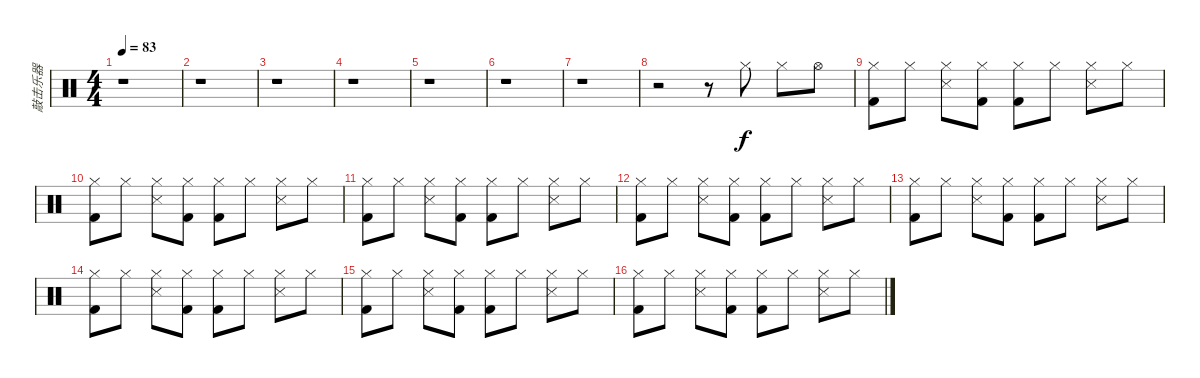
\track ("敲击乐器" "敲击乐器") {instrument percussion}
\staff {score}
\articulation defaults
\ts (4 4)
\tempo 83
\clef neutral
\ks c
r.1{dy f} |
r.1 |
r.1 |
r.1 |
r.1 |
r.1 |
r.1 |
r.2 r.8 "Hi-Hat (closed)".8 "Hi-Hat (closed)".8 "Hi-Hat (open)".8 |
("Kick (hit) 2" "Hi-Hat (closed)").8 "Hi-Hat (closed)".8 ("Snare (side stick) 3" "Hi-Hat (closed)").8 ("Kick (hit) 2" "Hi-Hat (closed)").8 ("Kick (hit) 2" "Hi-Hat (closed)").8 "Hi-Hat (closed)".8 ("Snare (side stick) 3" "Hi-Hat (closed)").8 "Hi-Hat (closed)".8 |
("Kick (hit) 2" "Hi-Hat (closed)").8 "Hi-Hat (closed)".8 ("Snare (side stick) 3" "Hi-Hat (closed)").8 ("Kick (hit) 2" "Hi-Hat (closed)").8 ("Kick (hit) 2" "Hi-Hat (closed)").8 "Hi-Hat (closed)".8 ("Snare (side stick) 3" "Hi-Hat (closed)").8 "Hi-Hat (closed)".8 |
("Kick (hit) 2" "Hi-Hat (closed)").8 "Hi-Hat (closed)".8 ("Snare (side stick) 3" "Hi-Hat (closed)").8 ("Kick (hit) 2" "Hi-Hat (closed)").8 ("Kick (hit) 2" "Hi-Hat (closed)").8 "Hi-Hat (closed)".8 ("Snare (side stick) 3" "Hi-Hat (closed)").8 "Hi-Hat (closed)".8 |
("Kick (hit) 2" "Hi-Hat (closed)").8 "Hi-Hat (closed)".8 ("Snare (side stick) 3" "Hi-Hat (closed)").8 ("Kick (hit) 2" "Hi-Hat (closed)").8 ("Kick (hit) 2" "Hi-Hat (closed)").8 "Hi-Hat (closed)".8 ("Snare (side stick) 3" "Hi-Hat (closed)").8 "Hi-Hat (closed)".8 |
("Kick (hit) 2" "Hi-Hat (closed)").8 "Hi-Hat (closed)".8 ("Snare (side stick) 3" "Hi-Hat (closed)").8 ("Kick (hit) 2" "Hi-Hat (closed)").8 ("Kick (hit) 2" "Hi-Hat (closed)").8 "Hi-Hat (closed)".8 ("Snare (side stick) 3" "Hi-Hat (closed)").8 "Hi-Hat (closed)".8 |
("Kick (hit) 2" "Hi-Hat (closed)").8 "Hi-Hat (closed)".8 ("Snare (side stick) 3" "Hi-Hat (closed)").8 ("Kick (hit) 2" "Hi-Hat (closed)").8 ("Kick (hit) 2" "Hi-Hat (closed)").8 "Hi-Hat (closed)".8 ("Snare (side stick) 3" "Hi-Hat (closed)").8 "Hi-Hat (closed)".8 |
("Kick (hit) 2" "Hi-Hat (closed)").8 "Hi-Hat (closed)".8 ("Snare (side stick) 3" "Hi-Hat (closed)").8 ("Kick (hit) 2" "Hi-Hat (closed)").8 ("Kick (hit) 2" "Hi-Hat (closed)").8 "Hi-Hat (closed)".8 ("Snare (side stick) 3" "Hi-Hat (closed)").8 "Hi-Hat (closed)".8 |
("Kick (hit) 2" "Hi-Hat (closed)").8 "Hi-Hat (closed)".8 ("Snare (side stick) 3" "Hi-Hat (closed)").8 ("Kick (hit) 2" "Hi-Hat (closed)").8 ("Kick (hit) 2" "Hi-Hat (closed)").8 "Hi-Hat (closed)".8 ("Snare (side stick) 3" "Hi-Hat (closed)").8 "Hi-Hat (closed)".8
